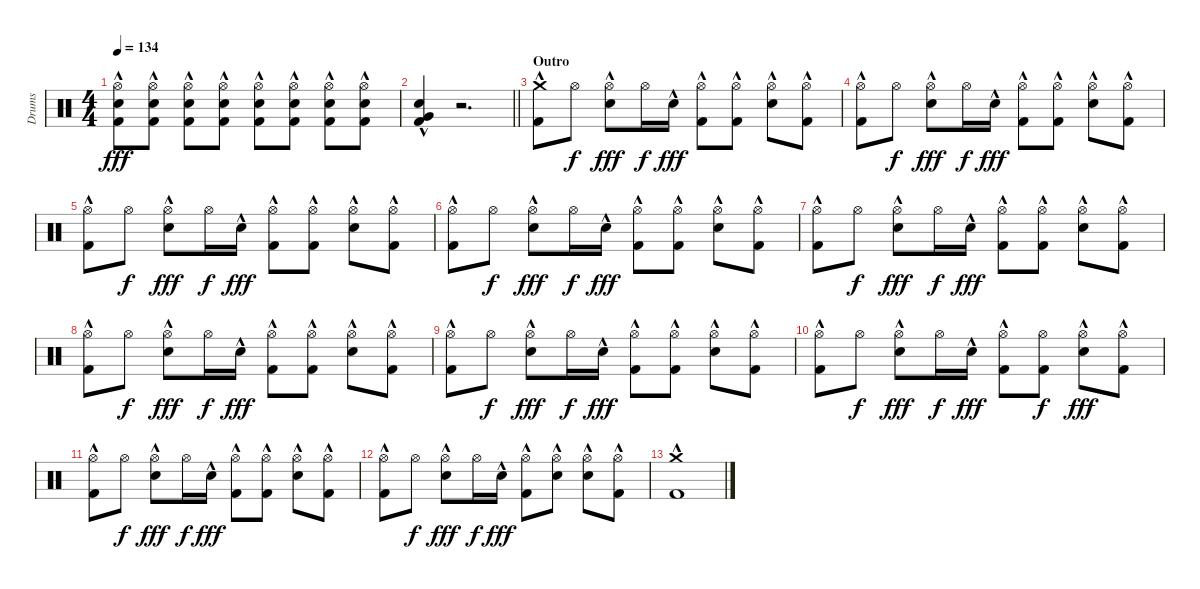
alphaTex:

\track ("Drums" "Drums") {instrument percussion}
\staff {score}
\articulation defaults
\ts (4 4)
\tempo 134
\clef neutral
\ks c
("Hi-Hat (open)" "Snare (hit) 2" "Kick (hit) 2"{hac}).8{dy fff} ("Hi-Hat (open)" "Snare (hit) 2" "Kick (hit) 2"{hac}).8 ("Hi-Hat (open)" "Snare (hit) 2" "Kick (hit) 2"{hac}).8 ("Hi-Hat (open)" "Snare (hit) 2" "Kick (hit) 2"{hac}).8 ("Hi-Hat (open)" "Snare (hit) 2" "Kick (hit) 2"{hac}).8 ("Hi-Hat (open)" "Snare (hit) 2" "Kick (hit) 2"{hac}).8 ("Hi-Hat (open)" "Snare (hit) 2" "Kick (hit) 2"{hac}).8 ("Hi-Hat (open)" "Snare (hit) 2" "Kick (hit) 2"{hac}).8 |
\barLineRight lightlight
("Snare (hit) 2"{hac} "Very Low Tom (hit)"{hac} "Kick (hit) 2"{hac}).4 r.2{d} |
\section ("" "Outro")
("Crash medium (hit)" "Kick (hit) 2"{hac}).8 "Hi-Hat (open)".8{dy f} ("Hi-Hat (open)" "Snare (hit) 2"{hac}).8{dy fff} "Hi-Hat (open)".16{dy f} "Snare (hit) 2"{hac}.16{dy fff} ("Hi-Hat (open)" "Kick (hit) 2"{hac}).8 ("Hi-Hat (open)" "Kick (hit) 2"{hac}).8 ("Hi-Hat (open)" "Snare (hit) 2"{hac}).8 ("Hi-Hat (open)" "Kick (hit) 2"{hac}).8 |
("Hi-Hat (open)" "Kick (hit) 2"{hac}).8 "Hi-Hat (open)".8{dy f} ("Hi-Hat (open)" "Snare (hit) 2"{hac}).8{dy fff} "Hi-Hat (open)".16{dy f} "Snare (hit) 2"{hac}.16{dy fff} ("Hi-Hat (open)" "Kick (hit) 2"{hac}).8 ("Hi-Hat (open)" "Kick (hit) 2"{hac}).8 ("Hi-Hat (open)" "Snare (hit) 2"{hac}).8 ("Hi-Hat (open)" "Kick (hit) 2"{hac}).8 |
("Hi-Hat (open)" "Kick (hit) 2"{hac}).8 "Hi-Hat (open)".8{dy f} ("Hi-Hat (open)" "Snare (hit) 2"{hac}).8{dy fff} "Hi-Hat (open)".16{dy f} "Snare (hit) 2"{hac}.16{dy fff} ("Hi-Hat (open)" "Kick (hit) 2"{hac}).8 ("Hi-Hat (open)" "Kick (hit) 2"{hac}).8 ("Hi-Hat (open)" "Snare (hit) 2"{hac}).8 ("Hi-Hat (open)" "Kick (hit) 2"{hac}).8 |
("Hi-Hat (open)" "Kick (hit) 2"{hac}).8 "Hi-Hat (open)".8{dy f} ("Hi-Hat (open)" "Snare (hit) 2"{hac}).8{dy fff} "Hi-Hat (open)".16{dy f} "Snare (hit) 2"{hac}.16{dy fff} ("Hi-Hat (open)" "Kick (hit) 2"{hac}).8 ("Hi-Hat (open)" "Kick (hit) 2"{hac}).8 ("Hi-Hat (open)" "Snare (hit) 2"{hac}).8 ("Hi-Hat (open)" "Kick (hit) 2"{hac}).8 |
("Hi-Hat (open)" "Kick (hit) 2"{hac}).8 "Hi-Hat (open)".8{dy f} ("Hi-Hat (open)" "Snare (hit) 2"{hac}).8{dy fff} "Hi-Hat (open)".16{dy f} "Snare (hit) 2"{hac}.16{dy fff} ("Hi-Hat (open)" "Kick (hit) 2"{hac}).8 ("Hi-Hat (open)" "Kick (hit) 2"{hac}).8 ("Hi-Hat (open)" "Snare (hit) 2"{hac}).8 ("Hi-Hat (open)" "Kick (hit) 2"{hac}).8 |
("Hi-Hat (open)" "Kick (hit) 2"{hac}).8 "Hi-Hat (open)".8{dy f} ("Hi-Hat (open)" "Snare (hit) 2"{hac}).8{dy fff} "Hi-Hat (open)".16{dy f} "Snare (hit) 2"{hac}.16{dy fff} ("Hi-Hat (open)" "Kick (hit) 2"{hac}).8 ("Hi-Hat (open)" "Kick (hit) 2"{hac}).8 ("Hi-Hat (open)" "Snare (hit) 2"{hac}).8 ("Hi-Hat (open)" "Kick (hit) 2"{hac}).8 |
("Hi-Hat (open)" "Kick (hit) 2"{hac}).8 "Hi-Hat (open)".8{dy f} ("Hi-Hat (open)" "Snare (hit) 2"{hac}).8{dy fff} "Hi-Hat (open)".16{dy f} "Snare (hit) 2"{hac}.16{dy fff} ("Hi-Hat (open)" "Kick (hit) 2"{hac}).8 ("Hi-Hat (open)" "Kick (hit) 2"{hac}).8 ("Hi-Hat (open)" "Snare (hit) 2"{hac}).8 ("Hi-Hat (open)" "Kick (hit) 2"{hac}).8 |
("Hi-Hat (open)" "Kick (hit) 2"{hac}).8 "Hi-Hat (open)".8{dy f} ("Hi-Hat (open)" "Snare (hit) 2"{hac}).8{dy fff} "Hi-Hat (open)".16{dy f} "Snare (hit) 2"{hac}.16{dy fff} ("Hi-Hat (open)" "Kick (hit) 2"{hac}).8 ("Hi-Hat (open)" "Kick (hit) 2").8{dy f} ("Hi-Hat (open)" "Snare (hit) 2"{hac}).8{dy fff} ("Hi-Hat (open)" "Kick (hit) 2"{hac}).8 |
("Hi-Hat (open)" "Kick (hit) 2"{hac}).8 "Hi-Hat (open)".8{dy f} ("Hi-Hat (open)" "Snare (hit) 2"{hac}).8{dy fff} "Hi-Hat (open)".16{dy f} "Snare (hit) 2"{hac}.16{dy fff} ("Hi-Hat (open)" "Kick (hit) 2"{hac}).8 ("Hi-Hat (open)" "Kick (hit) 2"{hac}).8 ("Hi-Hat (open)" "Snare (hit) 2"{hac}).8 ("Hi-Hat (open)" "Kick (hit) 2"{hac}).8 |
("Hi-Hat (open)" "Kick (hit) 2"{hac}).8 "Hi-Hat (open)".8{dy f} ("Hi-Hat (open)" "Snare (hit) 2"{hac}).8{dy fff} "Hi-Hat (open)".16{dy f} "Snare (hit) 2"{hac}.16{dy fff} ("Hi-Hat (open)" "Kick (hit) 2"{hac}).8 ("Hi-Hat (open)" "Snare (hit) 2"{hac}).8 ("Hi-Hat (open)" "Snare (hit) 2"{hac}).8 ("Hi-Hat (open)" "Kick (hit) 2"{hac}).8 |
("Crash medium (hit)" "Kick (hit) 2"{hac}).1
